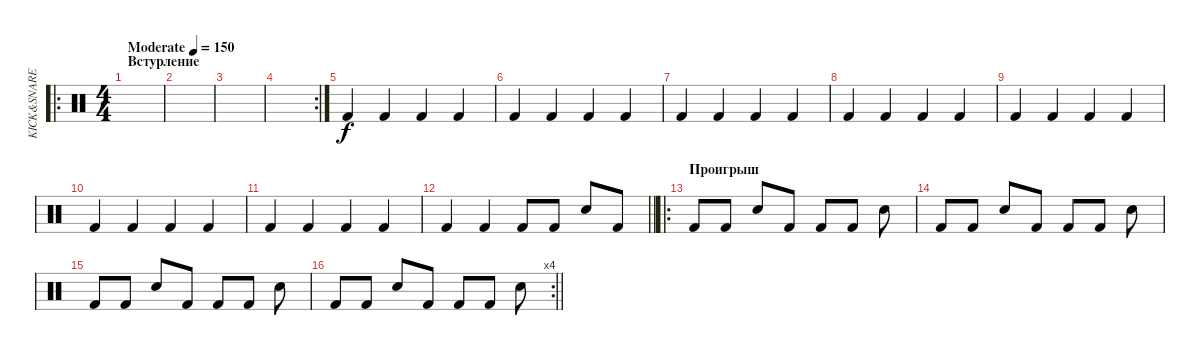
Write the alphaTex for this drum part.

\track ("KICK&SNARE" "KICK&SNARE") {instrument percussion}
\staff {score}
\articulation defaults
\ro
\ts (4 4)
\section ("" "Встурление")
\tempo (150 "Moderate")
\clef neutral
\ks c
|
|
|
\rc 2
|
"Kick (hit) 2".4 "Kick (hit) 2".4 "Kick (hit) 2".4 "Kick (hit) 2".4 |
"Kick (hit) 2".4 "Kick (hit) 2".4 "Kick (hit) 2".4 "Kick (hit) 2".4 |
"Kick (hit) 2".4 "Kick (hit) 2".4 "Kick (hit) 2".4 "Kick (hit) 2".4 |
"Kick (hit) 2".4 "Kick (hit) 2".4 "Kick (hit) 2".4 "Kick (hit) 2".4 |
"Kick (hit) 2".4 "Kick (hit) 2".4 "Kick (hit) 2".4 "Kick (hit) 2".4 |
"Kick (hit) 2".4 "Kick (hit) 2".4 "Kick (hit) 2".4 "Kick (hit) 2".4 |
"Kick (hit) 2".4 "Kick (hit) 2".4 "Kick (hit) 2".4 "Kick (hit) 2".4 |
\barLineRight lightlight "Kick (hit) 2".4 "Kick (hit) 2".4 "Kick (hit) 2".8 "Kick (hit) 2".8 "Snare (hit) 2".8 "Kick (hit) 2".8
|
\ro
\section ("" "Проигрыш")
"Kick (hit) 2".8 "Kick (hit) 2".8 "Snare (hit) 2".8 "Kick (hit) 2".8 "Kick (hit) 2".8 "Kick (hit) 2".8 "Snare (hit) 2".8 |
"Kick (hit) 2".8 "Kick (hit) 2".8 "Snare (hit) 2".8 "Kick (hit) 2".8 "Kick (hit) 2".8 "Kick (hit) 2".8 "Snare (hit) 2".8 |
"Kick (hit) 2".8 "Kick (hit) 2".8 "Snare (hit) 2".8 "Kick (hit) 2".8 "Kick (hit) 2".8 "Kick (hit) 2".8 "Snare (hit) 2".8 |
\rc 4
\barLineRight lightlight "Kick (hit) 2".8 "Kick (hit) 2".8 "Snare (hit) 2".8 "Kick (hit) 2".8 "Kick (hit) 2".8 "Kick (hit) 2".8 "Snare (hit) 2".8
